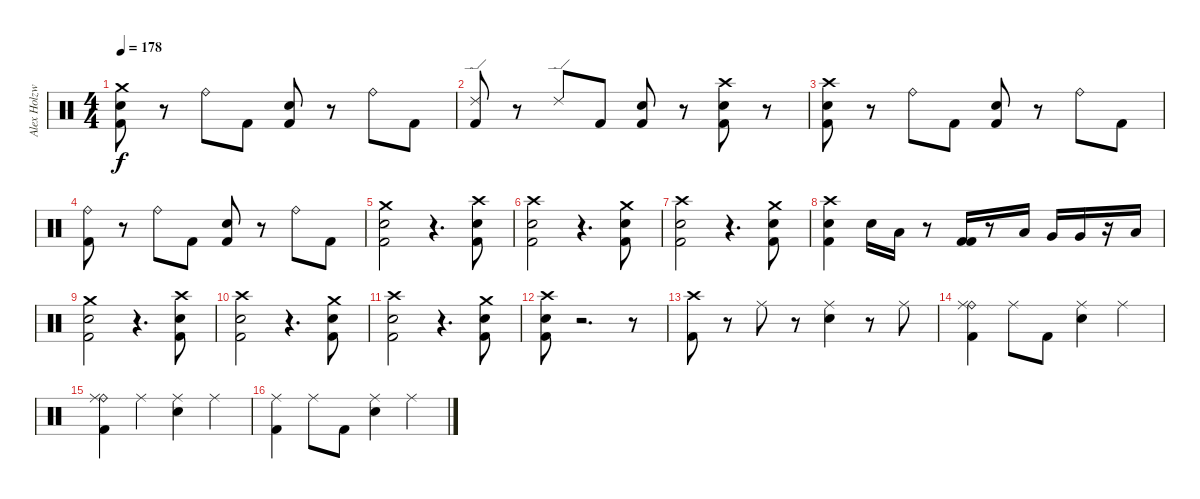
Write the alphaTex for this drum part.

\track ("Alex Holzwarth" "Alex Holzw") {instrument percussion}
\staff {score}
\articulation defaults
\ts (4 4)
\tempo 178
\clef neutral
\ks c
("Crash medium (hit)" "Snare (hit) 2" "Kick (hit) 2").8{dy f} r.8 "Ride (bell)".8 "Kick (hit) 2".8 ("Snare (hit) 2" "Kick (hit) 2").8 r.8 "Ride (bell)".8 "Kick (hit) 2".8 |
("Ride (edge) 2" "Kick (hit) 2").8 r.8 "Ride (edge) 2".8 "Kick (hit) 2".8 ("Snare (hit) 2" "Kick (hit) 2").8 r.8 ("Crash high (hit)" "Snare (hit) 2" "Kick (hit) 2").8 r.8 |
("Crash high (hit)" "Snare (hit) 2" "Kick (hit) 2").8 r.8 "Ride (bell)".8 "Kick (hit) 2".8 ("Snare (hit) 2" "Kick (hit) 2").8 r.8 "Ride (bell)".8 "Kick (hit) 2".8 |
("Ride (bell)" "Kick (hit) 2").8 r.8 "Ride (bell)".8 "Kick (hit) 2".8 ("Snare (hit) 2" "Kick (hit) 2").8 r.8 "Ride (bell)".8 "Kick (hit) 2".8 |
("Crash medium (hit)" "Snare (hit) 2" "Kick (hit) 2").2 r.4{d} ("Crash high (hit)" "Snare (hit) 2" "Kick (hit) 2").8 |
("Crash high (hit)" "Snare (hit) 2" "Kick (hit) 2").2 r.4{d} ("Crash medium (hit)" "Snare (hit) 2" "Kick (hit) 2").8 |
("Crash high (hit)" "Snare (hit) 2" "Kick (hit) 2").2 r.4{d} ("Crash medium (hit)" "Snare (hit) 2" "Kick (hit) 2").8 |
("Crash high (hit)" "Snare (hit) 2" "Kick (hit) 2").4 "Snare (hit) 2".16 "Low Tom (hit)".16 r.8 ("Kick (hit) 2" "Kick (hit) 2").16 r.8 "Low Tom (hit)".16 "Very Low Tom (hit)".16 "Very Low Tom (hit)".16 r.16 "Low Floor Tom (hit)".16 |
("Crash medium (hit)" "Snare (hit) 2" "Kick (hit) 2").2 r.4{d} ("Crash high (hit)" "Snare (hit) 2" "Kick (hit) 2").8 |
("Crash high (hit)" "Snare (hit) 2" "Kick (hit) 2").2 r.4{d} ("Crash medium (hit)" "Snare (hit) 2" "Kick (hit) 2").8 |
("Crash high (hit)" "Snare (hit) 2" "Kick (hit) 2").2 r.4{d} ("Crash medium (hit)" "Snare (hit) 2" "Kick (hit) 2").8 |
("Crash high (hit)" "Snare (hit) 2" "Kick (hit) 2").8 r.2{d} r.8 |
("Crash high (hit)" "Kick (hit) 2").8 r.8 "Ride (middle)".8 r.8 ("Ride (middle)" "Snare (hit) 2").4 r.8 "Ride (middle)".8 |
("Ride (bell)" "Ride (middle)" "Kick (hit) 2").4 "Ride (middle)".8 "Kick (hit) 2".8 ("Ride (middle)" "Snare (hit) 2").4 "Ride (middle)".4 |
("Ride (bell)" "Ride (middle)" "Kick (hit) 2").4 "Ride (middle)".4 ("Ride (middle)" "Snare (hit) 2").4 "Ride (middle)".4 |
("Ride (middle)" "Kick (hit) 2").4 "Ride (middle)".8 "Kick (hit) 2".8 ("Ride (middle)" "Snare (hit) 2").4 "Ride (middle)".4
